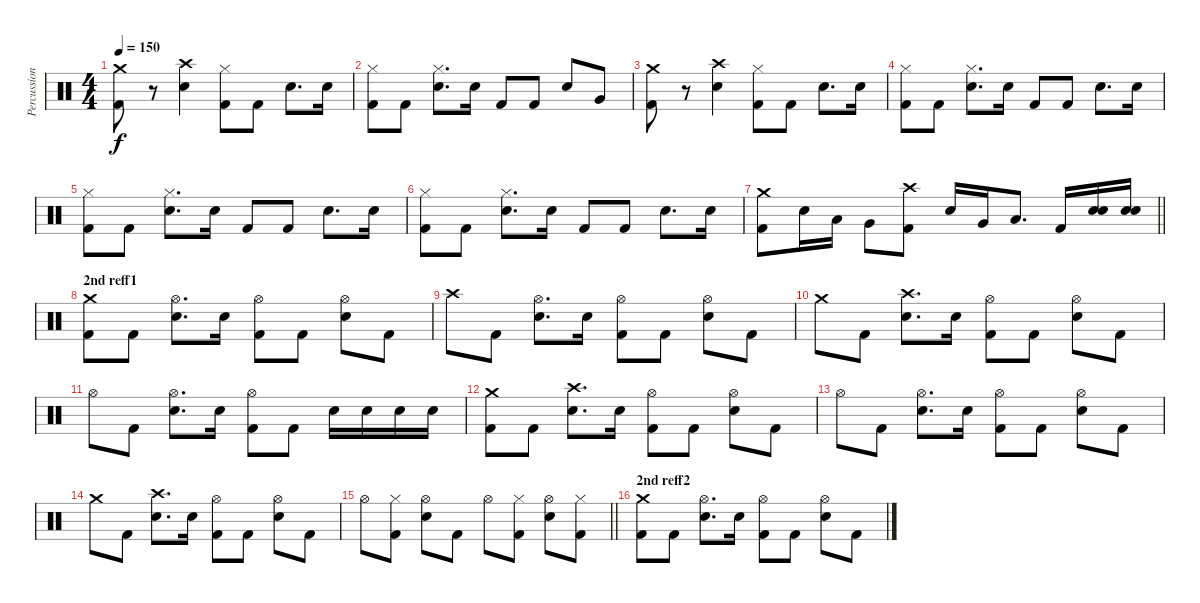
\track ("Percussion" "Percussion") {instrument percussion}
\staff {score}
\articulation defaults
\ts (4 4)
\tempo 150
\clef neutral
\ks c
("Crash medium (hit)" "Kick (hit) 2").8{dy f} r.8 ("Crash high (hit)" "Electric Snare (hit)").4 ("Hi-Hat (closed)" "Kick (hit) 2").8 "Kick (hit) 2".8 "Electric Snare (hit)".8{d} "Electric Snare (hit)".16 |
("Hi-Hat (closed)" "Kick (hit) 2").8 "Kick (hit) 2".8 ("Hi-Hat (closed)" "Electric Snare (hit)").8{d} "Electric Snare (hit)".16 "Kick (hit) 2".8 "Kick (hit) 2".8 "Electric Snare (hit)".8 "Very Low Tom (hit)".8 |
("Crash medium (hit)" "Kick (hit) 2").8 r.8 ("Crash high (hit)" "Electric Snare (hit)").4 ("Hi-Hat (closed)" "Kick (hit) 2").8 "Kick (hit) 2".8 "Electric Snare (hit)".8{d} "Electric Snare (hit)".16 |
("Hi-Hat (closed)" "Kick (hit) 2").8 "Kick (hit) 2".8 ("Hi-Hat (closed)" "Electric Snare (hit)").8{d} "Electric Snare (hit)".16 "Kick (hit) 2".8 "Kick (hit) 2".8 "Electric Snare (hit)".8{d} "Electric Snare (hit)".16 |
("Hi-Hat (closed)" "Kick (hit) 2").8 "Kick (hit) 2".8 ("Hi-Hat (closed)" "Electric Snare (hit)").8{d} "Electric Snare (hit)".16 "Kick (hit) 2".8 "Kick (hit) 2".8 "Electric Snare (hit)".8{d} "Electric Snare (hit)".16 |
("Hi-Hat (closed)" "Kick (hit) 2").8 "Kick (hit) 2".8 ("Hi-Hat (closed)" "Electric Snare (hit)").8{d} "Electric Snare (hit)".16 "Kick (hit) 2".8 "Kick (hit) 2".8 "Electric Snare (hit)".8{d} "Electric Snare (hit)".16 |
\barLineRight lightlight
("Crash medium (hit)" "Kick (hit) 2").8 "Electric Snare (hit)".16 "Low Tom (hit)".16 "Very Low Tom (hit)".8 ("Crash high (hit)" "Kick (hit) 2").8 "Electric Snare (hit)".16 "Very Low Tom (hit)".16 "Low Floor Tom (hit)".8{d} "Kick (hit) 2".16 ("Electric Snare (hit)" "Electric Snare (hit)").16 ("Electric Snare (hit)" "Electric Snare (hit)").16 |
\section ("" "2nd reff1")
("Crash medium (hit)" "Kick (hit) 2").8 "Kick (hit) 2".8 ("Hi-Hat (open)" "Electric Snare (hit)").8{d} "Electric Snare (hit)".16 ("Hi-Hat (open)" "Kick (hit) 2").8 "Kick (hit) 2".8 ("Hi-Hat (open)" "Electric Snare (hit)").8 "Kick (hit) 2".8 |
"Crash high (hit)".8 "Kick (hit) 2".8 ("Hi-Hat (open)" "Electric Snare (hit)").8{d} "Electric Snare (hit)".16 ("Hi-Hat (open)" "Kick (hit) 2").8 "Kick (hit) 2".8 ("Hi-Hat (open)" "Electric Snare (hit)").8 "Kick (hit) 2".8 |
"Crash medium (hit)".8 "Kick (hit) 2".8 ("Crash high (hit)" "Electric Snare (hit)").8{d} "Electric Snare (hit)".16 ("Hi-Hat (open)" "Kick (hit) 2").8 "Kick (hit) 2".8 ("Hi-Hat (open)" "Electric Snare (hit)").8 "Kick (hit) 2".8 |
"Hi-Hat (open)".8 "Kick (hit) 2".8 ("Hi-Hat (open)" "Electric Snare (hit)").8{d} "Electric Snare (hit)".16 ("Hi-Hat (open)" "Kick (hit) 2").8 "Kick (hit) 2".8 "Electric Snare (hit)".16 "Electric Snare (hit)".16 "Electric Snare (hit)".16 "Electric Snare (hit)".16 |
("Crash medium (hit)" "Kick (hit) 2").8 "Kick (hit) 2".8 ("Crash high (hit)" "Electric Snare (hit)").8{d} "Electric Snare (hit)".16 ("Hi-Hat (open)" "Kick (hit) 2").8 "Kick (hit) 2".8 ("Hi-Hat (open)" "Electric Snare (hit)").8 "Kick (hit) 2".8 |
"Hi-Hat (open)".8 "Kick (hit) 2".8 ("Hi-Hat (open)" "Electric Snare (hit)").8{d} "Electric Snare (hit)".16 ("Hi-Hat (open)" "Kick (hit) 2").8 "Kick (hit) 2".8 ("Hi-Hat (open)" "Electric Snare (hit)").8 "Kick (hit) 2".8 |
"Crash medium (hit)".8 "Kick (hit) 2".8 ("Crash high (hit)" "Electric Snare (hit)").8{d} "Electric Snare (hit)".16 ("Hi-Hat (open)" "Kick (hit) 2").8 "Kick (hit) 2".8 ("Hi-Hat (open)" "Electric Snare (hit)").8 "Kick (hit) 2".8 |
\barLineRight lightlight "Hi-Hat (open)".8
("Hi-Hat (closed)" "Kick (hit) 2").8 ("Hi-Hat (open)" "Electric Snare (hit)").8 "Kick (hit) 2".8 "Hi-Hat (open)".8 ("Hi-Hat (closed)" "Kick (hit) 2").8 ("Hi-Hat (open)" "Electric Snare (hit)").8 ("Hi-Hat (closed)" "Kick (hit) 2").8 |
\section ("" "2nd reff2")
("Crash medium (hit)" "Kick (hit) 2").8 "Kick (hit) 2".8 ("Hi-Hat (open)" "Electric Snare (hit)").8{d} "Electric Snare (hit)".16 ("Hi-Hat (open)" "Kick (hit) 2").8 "Kick (hit) 2".8 ("Hi-Hat (open)" "Electric Snare (hit)").8 "Kick (hit) 2".8
